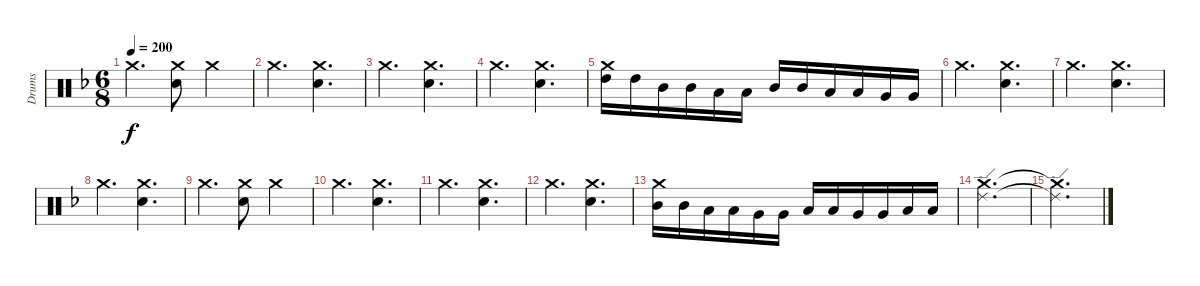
\track ("Drums" "Drums") {instrument percussion}
\staff {score}
\articulation defaults
\ts (6 8)
\tempo 200
\clef neutral
\ks dminor "Crash medium (hit)".4{d dy f}
("Crash medium (hit)" "Snare (hit) 2").8 "Crash medium (hit)".4 |
"Crash medium (hit)".4{d} ("Crash medium (hit)" "Snare (hit) 2").4{d} |
"Crash medium (hit)".4{d} ("Crash medium (hit)" "Snare (hit) 2").4{d} |
"Crash medium (hit)".4{d} ("Crash medium (hit)" "Snare (hit) 2").4{d} |
("Crash medium (hit)" "High Tom (hit)").16 "High Tom (hit)".16 "Mid Tom (hit)".16 "Mid Tom (hit)".16 "Low Tom (hit)".16 "Low Tom (hit)".16 "Mid Tom (hit)".16 "Mid Tom (hit)".16 "Low Tom (hit)".16 "Low Tom (hit)".16 "Very Low Tom (hit)".16 "Very Low Tom (hit)".16 |
"Crash medium (hit)".4{d} ("Crash medium (hit)" "Snare (hit) 2").4{d} |
"Crash medium (hit)".4{d} ("Crash medium (hit)" "Snare (hit) 2").4{d} |
"Crash medium (hit)".4{d} ("Crash medium (hit)" "Snare (hit) 2").4{d} |
"Crash medium (hit)".4{d} ("Crash medium (hit)" "Snare (hit) 2").8 "Crash medium (hit)".4 |
"Crash medium (hit)".4{d} ("Crash medium (hit)" "Snare (hit) 2").4{d} |
"Crash medium (hit)".4{d} ("Crash medium (hit)" "Snare (hit) 2").4{d} |
"Crash medium (hit)".4{d} ("Crash medium (hit)" "Snare (hit) 2").4{d} |
("Crash medium (hit)" "Mid Tom (hit)").16 "Mid Tom (hit)".16 "Low Tom (hit)".16 "Low Tom (hit)".16 "Very Low Tom (hit)".16 "Very Low Tom (hit)".16 "Low Tom (hit)".16 "Low Tom (hit)".16 "Very Low Tom (hit)".16 "Very Low Tom (hit)".16 "Low Floor Tom (hit)".16 "Low Floor Tom (hit)".16 |
("Ride (edge) 2" "Crash medium (hit)").2{d} |
("Ride (edge) 2"{t} "Crash medium (hit)"{t}).2{d}
